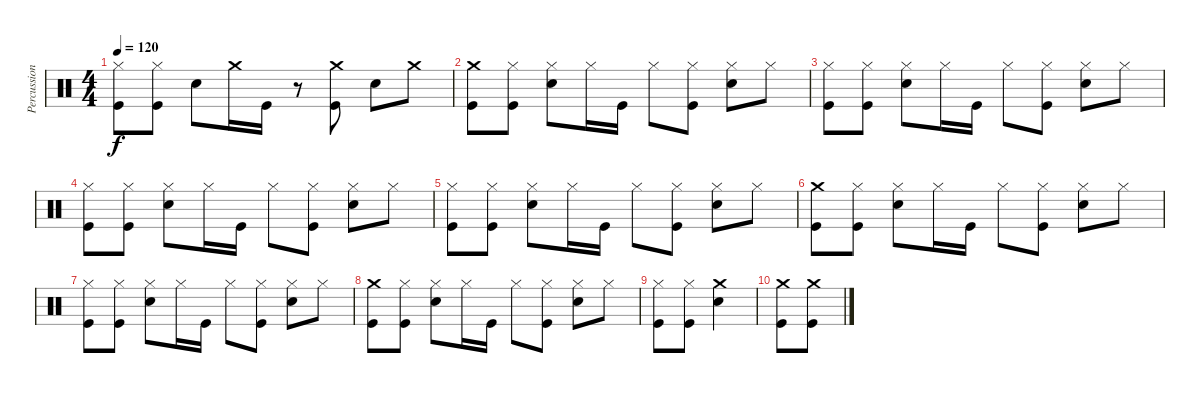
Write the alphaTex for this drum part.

\track ("Percussion" "Percussion") {instrument percussion}
\staff {score}
\articulation defaults
\ts (4 4)
\tempo 120
\clef neutral
\ks c
("Hi-Hat (closed)" "Kick (hit)").8{dy f} ("Hi-Hat (closed)" "Kick (hit)").8 "Electric Snare (hit)".8 "Crash medium (hit)".16 "Kick (hit)".16 r.8 ("Crash medium (hit)" "Kick (hit)").8 "Electric Snare (hit)".8 "Crash medium (hit)".8 |
("Crash medium (hit)" "Kick (hit)").8 ("Hi-Hat (closed)" "Kick (hit)").8 ("Hi-Hat (closed)" "Electric Snare (hit)").8 "Hi-Hat (closed)".16 "Kick (hit)".16 "Hi-Hat (closed)".8 ("Hi-Hat (closed)" "Kick (hit)").8 ("Hi-Hat (closed)" "Electric Snare (hit)").8 "Hi-Hat (closed)".8 |
("Hi-Hat (closed)" "Kick (hit)").8 ("Hi-Hat (closed)" "Kick (hit)").8 ("Hi-Hat (closed)" "Electric Snare (hit)").8 "Hi-Hat (closed)".16 "Kick (hit)".16 "Hi-Hat (closed)".8 ("Hi-Hat (closed)" "Kick (hit)").8 ("Hi-Hat (closed)" "Electric Snare (hit)").8 "Hi-Hat (closed)".8 |
("Hi-Hat (closed)" "Kick (hit)").8 ("Hi-Hat (closed)" "Kick (hit)").8 ("Hi-Hat (closed)" "Electric Snare (hit)").8 "Hi-Hat (closed)".16 "Kick (hit)".16 "Hi-Hat (closed)".8 ("Hi-Hat (closed)" "Kick (hit)").8 ("Hi-Hat (closed)" "Electric Snare (hit)").8 "Hi-Hat (closed)".8 |
("Hi-Hat (closed)" "Kick (hit)").8 ("Hi-Hat (closed)" "Kick (hit)").8 ("Hi-Hat (closed)" "Electric Snare (hit)").8 "Hi-Hat (closed)".16 "Kick (hit)".16 "Hi-Hat (closed)".8 ("Hi-Hat (closed)" "Kick (hit)").8 ("Hi-Hat (closed)" "Electric Snare (hit)").8 "Hi-Hat (closed)".8 |
("Crash medium (hit)" "Kick (hit)").8 ("Hi-Hat (closed)" "Kick (hit)").8 ("Hi-Hat (closed)" "Electric Snare (hit)").8 "Hi-Hat (closed)".16 "Kick (hit)".16 "Hi-Hat (closed)".8 ("Hi-Hat (closed)" "Kick (hit)").8 ("Hi-Hat (closed)" "Electric Snare (hit)").8 "Hi-Hat (closed)".8 |
("Hi-Hat (closed)" "Kick (hit)").8 ("Hi-Hat (closed)" "Kick (hit)").8 ("Hi-Hat (closed)" "Electric Snare (hit)").8 "Hi-Hat (closed)".16 "Kick (hit)".16 "Hi-Hat (closed)".8 ("Hi-Hat (closed)" "Kick (hit)").8 ("Hi-Hat (closed)" "Electric Snare (hit)").8 "Hi-Hat (closed)".8 |
("Crash medium (hit)" "Kick (hit)").8 ("Hi-Hat (closed)" "Kick (hit)").8 ("Hi-Hat (closed)" "Electric Snare (hit)").8 "Hi-Hat (closed)".16 "Kick (hit)".16 "Hi-Hat (closed)".8 ("Hi-Hat (closed)" "Kick (hit)").8 ("Hi-Hat (closed)" "Electric Snare (hit)").8 "Hi-Hat (closed)".8 |
("Hi-Hat (closed)" "Kick (hit)").8 ("Hi-Hat (closed)" "Kick (hit)").8 ("Crash medium (hit)" "Electric Snare (hit)").4 |
("Crash medium (hit)" "Kick (hit)").8 ("Crash medium (hit)" "Kick (hit)").8
